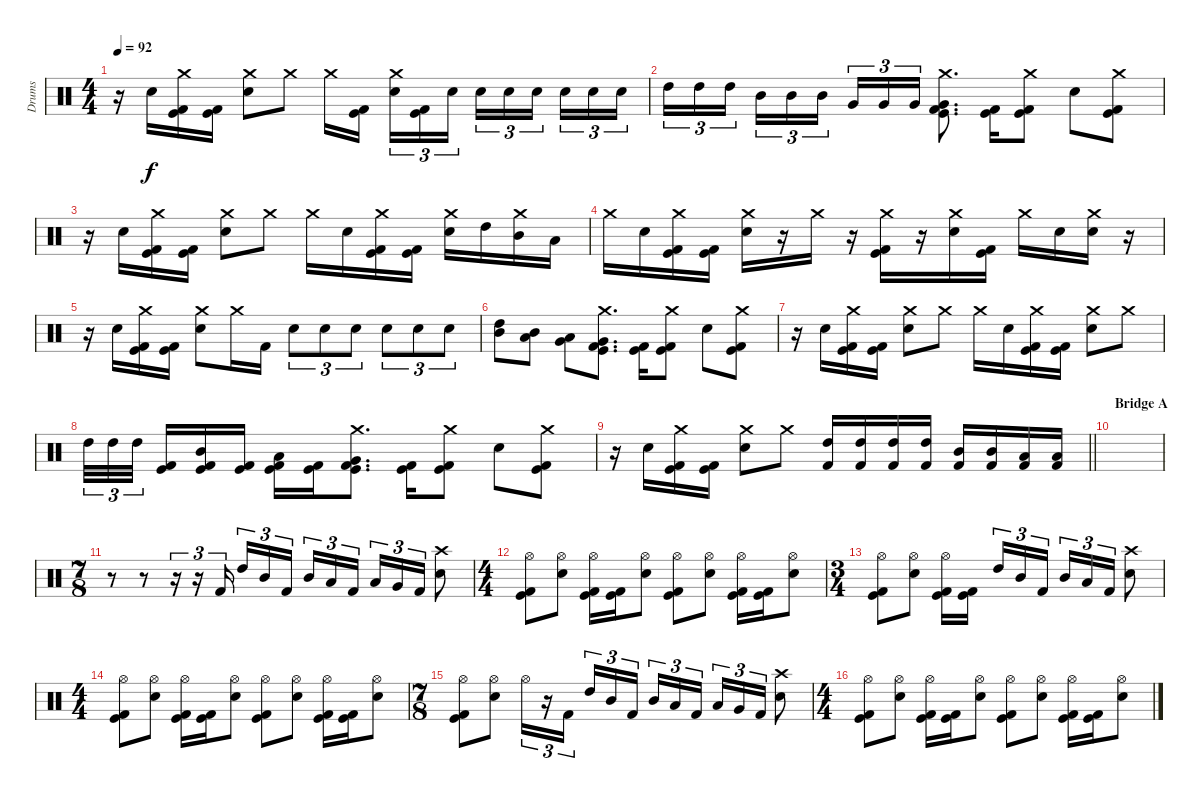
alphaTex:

\track ("Drums" "Drums") {instrument percussion}
\staff {score}
\articulation defaults
\ts (4 4)
\tempo 92
\clef neutral
\ks c
r.16{dy f} "Electric Snare (hit)".16 ("Crash medium (hit)" "Kick (hit)" "Kick (hit) 2").16 ("Kick (hit)" "Kick (hit) 2").16 ("Crash medium (hit)" "Electric Snare (hit)").8 "Crash medium (hit)".8 "Crash medium (hit)".16 ("Kick (hit)" "Kick (hit) 2").16{beam splitsecondary} ("Crash medium (hit)" "Electric Snare (hit)").16{tu (3 2)} ("Kick (hit)" "Kick (hit) 2").16{tu (3 2)} "Electric Snare (hit)".16{tu (3 2)} "Electric Snare (hit)".16{tu (3 2)} "Electric Snare (hit)".16{tu (3 2)} "Electric Snare (hit)".16{tu (3 2) beam splitsecondary} "Electric Snare (hit)".16{tu (3 2)} "Electric Snare (hit)".16{tu (3 2)} "Electric Snare (hit)".16{tu (3 2)} |
"High Tom (hit)".16{tu (3 2)} "High Tom (hit)".16{tu (3 2)} "High Tom (hit)".16{tu (3 2) beam splitsecondary} "Mid Tom (hit)".16{tu (3 2)} "Mid Tom (hit)".16{tu (3 2)} "Mid Tom (hit)".16{tu (3 2)} "Very Low Tom (hit)".16{tu (3 2)} "Very Low Tom (hit)".16{tu (3 2)} "Very Low Tom (hit)".16{tu (3 2)} ("Crash medium (hit)" "Very Low Tom (hit)" "Kick (hit)" "Kick (hit) 2").8{d} ("Kick (hit)" "Kick (hit) 2").16 ("Crash medium (hit)" "Kick (hit)" "Kick (hit) 2").8 "Electric Snare (hit)".8 ("Crash medium (hit)" "Kick (hit)" "Kick (hit) 2").8 |
r.16 "Electric Snare (hit)".16 ("Crash medium (hit)" "Kick (hit)" "Kick (hit) 2").16 ("Kick (hit)" "Kick (hit) 2").16 ("Crash medium (hit)" "Electric Snare (hit)").8 "Crash medium (hit)".8 "Crash medium (hit)".16 "Electric Snare (hit)".16 ("Crash medium (hit)" "Kick (hit)" "Kick (hit) 2").16 ("Kick (hit)" "Kick (hit) 2").16 ("Crash medium (hit)" "Electric Snare (hit)").16 "High Tom (hit)".16 ("Crash medium (hit)" "Mid Tom (hit)").16 "Low Tom (hit)".16 |
"Crash medium (hit)".16 "Electric Snare (hit)".16 ("Crash medium (hit)" "Kick (hit)" "Kick (hit) 2").16 ("Kick (hit)" "Kick (hit) 2").16 ("Crash medium (hit)" "Electric Snare (hit)").16 r.16 "Crash medium (hit)".16 r.16 ("Crash medium (hit)" "Kick (hit)" "Kick (hit) 2").16 r.16 ("Crash medium (hit)" "Electric Snare (hit)").16 ("Kick (hit)" "Kick (hit) 2").16 "Crash medium (hit)".16 "Electric Snare (hit)".16 ("Crash medium (hit)" "Electric Snare (hit)").16 r.16 |
r.16 "Electric Snare (hit)".16 ("Crash medium (hit)" "Kick (hit)" "Kick (hit) 2").16 ("Kick (hit)" "Kick (hit) 2").16 ("Crash medium (hit)" "Electric Snare (hit)").8 "Crash medium (hit)".16 "Kick (hit) 2".16 "Electric Snare (hit)".8{tu (3 2)} "Electric Snare (hit)".8{tu (3 2)} "Electric Snare (hit)".8{tu (3 2)} "Electric Snare (hit)".8{tu (3 2)} "Electric Snare (hit)".8{tu (3 2)} "Electric Snare (hit)".8{tu (3 2)} |
("High Tom (hit)" "Mid Tom (hit)").8 ("Mid Tom (hit)" "Low Tom (hit)").8 ("Low Tom (hit)" "Very Low Tom (hit)").8 ("Crash medium (hit)" "Very Low Tom (hit)" "Kick (hit)" "Kick (hit) 2").8{d} ("Kick (hit)" "Kick (hit) 2").16 ("Crash medium (hit)" "Kick (hit)" "Kick (hit) 2").8 "Electric Snare (hit)".8 ("Crash medium (hit)" "Kick (hit)" "Kick (hit) 2").8 |
r.16 "Electric Snare (hit)".16 ("Crash medium (hit)" "Kick (hit)" "Kick (hit) 2").16 ("Kick (hit)" "Kick (hit) 2").16 ("Crash medium (hit)" "Electric Snare (hit)").8 "Crash medium (hit)".8 "Crash medium (hit)".16 "Electric Snare (hit)".16 ("Crash medium (hit)" "Kick (hit)" "Kick (hit) 2").16 ("Kick (hit)" "Kick (hit) 2").16 ("Crash medium (hit)" "Electric Snare (hit)").8 "Crash medium (hit)".8 |
"High Tom (hit)".32{tu (3 2)} "High Tom (hit)".32{tu (3 2)} "High Tom (hit)".32{tu (3 2) beam splitsecondary} ("Kick (hit)" "Kick (hit) 2").16 ("Mid Tom (hit)" "Kick (hit)" "Kick (hit) 2").16 ("Kick (hit)" "Kick (hit) 2").16 ("Low Tom (hit)" "Kick (hit)" "Kick (hit) 2").16 ("Kick (hit)" "Kick (hit) 2").16 ("Crash medium (hit)" "Very Low Tom (hit)" "Kick (hit)" "Kick (hit) 2").8{d} ("Kick (hit)" "Kick (hit) 2").16 ("Crash medium (hit)" "Kick (hit)" "Kick (hit) 2").8 "Electric Snare (hit)".8 ("Crash medium (hit)" "Kick (hit)" "Kick (hit) 2").8 |
\barLineRight lightlight
r.16 "Electric Snare (hit)".16 ("Crash medium (hit)" "Kick (hit)" "Kick (hit) 2").16 ("Kick (hit)" "Kick (hit) 2").16 ("Crash medium (hit)" "Electric Snare (hit)").8 "Crash medium (hit)".8 ("High Tom (hit)" "Kick (hit) 2").16 ("High Tom (hit)" "Kick (hit) 2").16 ("High Tom (hit)" "Kick (hit) 2").16 ("High Tom (hit)" "Kick (hit) 2").16 ("Mid Tom (hit)" "Kick (hit) 2").16 ("Mid Tom (hit)" "Kick (hit) 2").16 ("Low Tom (hit)" "Kick (hit) 2").16 ("Low Tom (hit)" "Kick (hit) 2").16 |
\section ("" "Bridge A")
|
\ts (7 8)
r.8 r.8 r.16{tu (3 2)} r.16{tu (3 2)} "Kick (hit) 2".16{tu (3 2)} "High Tom (hit)".16{tu (3 2)} "Mid Tom (hit)".16{tu (3 2)} "Kick (hit) 2".16{tu (3 2)} "Mid Tom (hit)".16{tu (3 2)} "Low Tom (hit)".16{tu (3 2)} "Kick (hit) 2".16{tu (3 2)} "Low Tom (hit)".16{tu (3 2)} "Very Low Tom (hit)".16{tu (3 2)} "Kick (hit) 2".16{tu (3 2)} ("Crash high (hit)" "Electric Snare (hit)").8 |
\ts (4 4)
("Hi-Hat (open)" "Kick (hit)" "Kick (hit) 2").8 ("Hi-Hat (open)" "Electric Snare (hit)").8 ("Hi-Hat (open)" "Kick (hit)" "Kick (hit) 2").16 ("Kick (hit)" "Kick (hit) 2").16 ("Hi-Hat (open)" "Electric Snare (hit)").8 ("Hi-Hat (open)" "Kick (hit)" "Kick (hit) 2").8 ("Hi-Hat (open)" "Electric Snare (hit)").8 ("Hi-Hat (open)" "Kick (hit)" "Kick (hit) 2").16 ("Kick (hit)" "Kick (hit) 2").16 ("Hi-Hat (open)" "Electric Snare (hit)").8 |
\ts (3 4)
("Hi-Hat (open)" "Kick (hit)" "Kick (hit) 2").8 ("Hi-Hat (open)" "Electric Snare (hit)").8 ("Hi-Hat (open)" "Kick (hit)" "Kick (hit) 2").16 ("Kick (hit)" "Kick (hit) 2").16{beam splitsecondary} "High Tom (hit)".16{tu (3 2)} "Mid Tom (hit)".16{tu (3 2)} "Kick (hit) 2".16{tu (3 2)} "Mid Tom (hit)".16{tu (3 2)} "Low Tom (hit)".16{tu (3 2)} "Kick (hit) 2".16{tu (3 2)} ("Crash high (hit)" "Electric Snare (hit)").8 |
\ts (4 4)
("Hi-Hat (open)" "Kick (hit)" "Kick (hit) 2").8 ("Hi-Hat (open)" "Electric Snare (hit)").8 ("Hi-Hat (open)" "Kick (hit)" "Kick (hit) 2").16 ("Kick (hit)" "Kick (hit) 2").16 ("Hi-Hat (open)" "Electric Snare (hit)").8 ("Hi-Hat (open)" "Kick (hit)" "Kick (hit) 2").8 ("Hi-Hat (open)" "Electric Snare (hit)").8 ("Hi-Hat (open)" "Kick (hit)" "Kick (hit) 2").16 ("Kick (hit)" "Kick (hit) 2").16 ("Hi-Hat (open)" "Electric Snare (hit)").8 |
\ts (7 8)
("Hi-Hat (open)" "Kick (hit)" "Kick (hit) 2").8 ("Hi-Hat (open)" "Electric Snare (hit)").8 "Hi-Hat (open)".16{tu (3 2)} r.16{tu (3 2)} "Kick (hit) 2".16{tu (3 2)} "High Tom (hit)".16{tu (3 2)} "Mid Tom (hit)".16{tu (3 2)} "Kick (hit) 2".16{tu (3 2)} "Mid Tom (hit)".16{tu (3 2)} "Low Tom (hit)".16{tu (3 2)} "Kick (hit) 2".16{tu (3 2)} "Low Tom (hit)".16{tu (3 2)} "Very Low Tom (hit)".16{tu (3 2)} "Kick (hit) 2".16{tu (3 2)} ("Crash high (hit)" "Electric Snare (hit)").8 |
\ts (4 4)
("Hi-Hat (open)" "Kick (hit)" "Kick (hit) 2").8 ("Hi-Hat (open)" "Electric Snare (hit)").8 ("Hi-Hat (open)" "Kick (hit)" "Kick (hit) 2").16 ("Kick (hit)" "Kick (hit) 2").16 ("Hi-Hat (open)" "Electric Snare (hit)").8 ("Hi-Hat (open)" "Kick (hit)" "Kick (hit) 2").8 ("Hi-Hat (open)" "Electric Snare (hit)").8 ("Hi-Hat (open)" "Kick (hit)" "Kick (hit) 2").16 ("Kick (hit)" "Kick (hit) 2").16 ("Hi-Hat (open)" "Electric Snare (hit)").8
